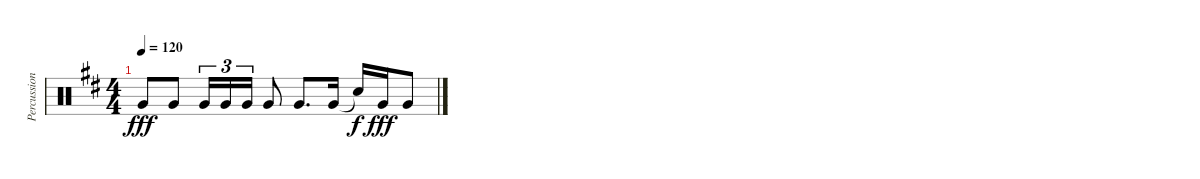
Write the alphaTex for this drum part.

\track ("Percussion" "Percussion") {instrument percussion}
\staff {score}
\articulation defaults
\ts (4 4)
\tempo 120
\clef neutral
\ks d "Very Low Tom (hit)".8{dy fff} "Very Low Tom (hit)".8 "Very Low Tom (hit)".16{tu (3 2)} "Very Low Tom (hit)".16{tu (3 2)} "Very Low Tom (hit)".16{tu (3 2)} "Very Low Tom (hit)".8 "Very Low Tom (hit)".8{d} "Very Low Tom (hit)".16 "Snare (hit)"{t}.16{dy f} "Very Low Tom (hit)".16{dy fff} "Very Low Tom (hit)".8
